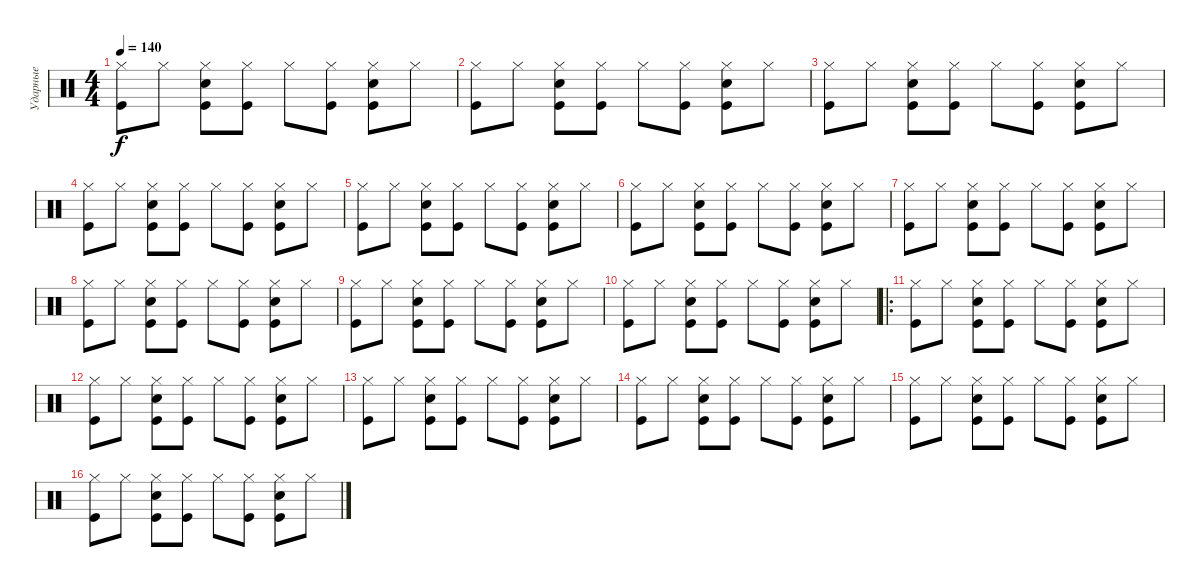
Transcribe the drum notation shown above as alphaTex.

\track ("Ударные" "Ударные") {instrument percussion}
\staff {score}
\articulation defaults
\ts (4 4)
\tempo 140
\clef neutral
\ks c
("Hi-Hat (closed)" "Kick (hit)").8{dy f} "Hi-Hat (closed)".8 ("Hi-Hat (closed)" "Snare (hit) 2" "Kick (hit)").8 ("Hi-Hat (closed)" "Kick (hit)").8 "Hi-Hat (closed)".8 ("Hi-Hat (closed)" "Kick (hit)").8 ("Hi-Hat (closed)" "Snare (hit) 2" "Kick (hit)").8 "Hi-Hat (closed)".8 |
("Hi-Hat (closed)" "Kick (hit)").8 "Hi-Hat (closed)".8 ("Hi-Hat (closed)" "Snare (hit) 2" "Kick (hit)").8 ("Hi-Hat (closed)" "Kick (hit)").8 "Hi-Hat (closed)".8 ("Hi-Hat (closed)" "Kick (hit)").8 ("Hi-Hat (closed)" "Snare (hit) 2" "Kick (hit)").8 "Hi-Hat (closed)".8 |
("Hi-Hat (closed)" "Kick (hit)").8 "Hi-Hat (closed)".8 ("Hi-Hat (closed)" "Snare (hit) 2" "Kick (hit)").8 ("Hi-Hat (closed)" "Kick (hit)").8 "Hi-Hat (closed)".8 ("Hi-Hat (closed)" "Kick (hit)").8 ("Hi-Hat (closed)" "Snare (hit) 2" "Kick (hit)").8 "Hi-Hat (closed)".8 |
("Hi-Hat (closed)" "Kick (hit)").8 "Hi-Hat (closed)".8 ("Hi-Hat (closed)" "Snare (hit) 2" "Kick (hit)").8 ("Hi-Hat (closed)" "Kick (hit)").8 "Hi-Hat (closed)".8 ("Hi-Hat (closed)" "Kick (hit)").8 ("Hi-Hat (closed)" "Snare (hit) 2" "Kick (hit)").8 "Hi-Hat (closed)".8 |
("Hi-Hat (closed)" "Kick (hit)").8 "Hi-Hat (closed)".8 ("Hi-Hat (closed)" "Snare (hit) 2" "Kick (hit)").8 ("Hi-Hat (closed)" "Kick (hit)").8 "Hi-Hat (closed)".8 ("Hi-Hat (closed)" "Kick (hit)").8 ("Hi-Hat (closed)" "Snare (hit) 2" "Kick (hit)").8 "Hi-Hat (closed)".8 |
("Hi-Hat (closed)" "Kick (hit)").8 "Hi-Hat (closed)".8 ("Hi-Hat (closed)" "Snare (hit) 2" "Kick (hit)").8 ("Hi-Hat (closed)" "Kick (hit)").8 "Hi-Hat (closed)".8 ("Hi-Hat (closed)" "Kick (hit)").8 ("Hi-Hat (closed)" "Snare (hit) 2" "Kick (hit)").8 "Hi-Hat (closed)".8 |
("Hi-Hat (closed)" "Kick (hit)").8 "Hi-Hat (closed)".8 ("Hi-Hat (closed)" "Snare (hit) 2" "Kick (hit)").8 ("Hi-Hat (closed)" "Kick (hit)").8 "Hi-Hat (closed)".8 ("Hi-Hat (closed)" "Kick (hit)").8 ("Hi-Hat (closed)" "Snare (hit) 2" "Kick (hit)").8 "Hi-Hat (closed)".8 |
("Hi-Hat (closed)" "Kick (hit)").8 "Hi-Hat (closed)".8 ("Hi-Hat (closed)" "Snare (hit) 2" "Kick (hit)").8 ("Hi-Hat (closed)" "Kick (hit)").8 "Hi-Hat (closed)".8 ("Hi-Hat (closed)" "Kick (hit)").8 ("Hi-Hat (closed)" "Snare (hit) 2" "Kick (hit)").8 "Hi-Hat (closed)".8 |
("Hi-Hat (closed)" "Kick (hit)").8 "Hi-Hat (closed)".8 ("Hi-Hat (closed)" "Snare (hit) 2" "Kick (hit)").8 ("Hi-Hat (closed)" "Kick (hit)").8 "Hi-Hat (closed)".8 ("Hi-Hat (closed)" "Kick (hit)").8 ("Hi-Hat (closed)" "Snare (hit) 2" "Kick (hit)").8 "Hi-Hat (closed)".8 |
("Hi-Hat (closed)" "Kick (hit)").8 "Hi-Hat (closed)".8 ("Hi-Hat (closed)" "Snare (hit) 2" "Kick (hit)").8 ("Hi-Hat (closed)" "Kick (hit)").8 "Hi-Hat (closed)".8 ("Hi-Hat (closed)" "Kick (hit)").8 ("Hi-Hat (closed)" "Snare (hit) 2" "Kick (hit)").8 "Hi-Hat (closed)".8 |
\ro
("Hi-Hat (closed)" "Kick (hit)").8 "Hi-Hat (closed)".8 ("Hi-Hat (closed)" "Snare (hit) 2" "Kick (hit)").8 ("Hi-Hat (closed)" "Kick (hit)").8 "Hi-Hat (closed)".8 ("Hi-Hat (closed)" "Kick (hit)").8 ("Hi-Hat (closed)" "Snare (hit) 2" "Kick (hit)").8 "Hi-Hat (closed)".8 |
("Hi-Hat (closed)" "Kick (hit)").8 "Hi-Hat (closed)".8 ("Hi-Hat (closed)" "Snare (hit) 2" "Kick (hit)").8 ("Hi-Hat (closed)" "Kick (hit)").8 "Hi-Hat (closed)".8 ("Hi-Hat (closed)" "Kick (hit)").8 ("Hi-Hat (closed)" "Snare (hit) 2" "Kick (hit)").8 "Hi-Hat (closed)".8 |
("Hi-Hat (closed)" "Kick (hit)").8 "Hi-Hat (closed)".8 ("Hi-Hat (closed)" "Snare (hit) 2" "Kick (hit)").8 ("Hi-Hat (closed)" "Kick (hit)").8 "Hi-Hat (closed)".8 ("Hi-Hat (closed)" "Kick (hit)").8 ("Hi-Hat (closed)" "Snare (hit) 2" "Kick (hit)").8 "Hi-Hat (closed)".8 |
("Hi-Hat (closed)" "Kick (hit)").8 "Hi-Hat (closed)".8 ("Hi-Hat (closed)" "Snare (hit) 2" "Kick (hit)").8 ("Hi-Hat (closed)" "Kick (hit)").8 "Hi-Hat (closed)".8 ("Hi-Hat (closed)" "Kick (hit)").8 ("Hi-Hat (closed)" "Snare (hit) 2" "Kick (hit)").8 "Hi-Hat (closed)".8 |
("Hi-Hat (closed)" "Kick (hit)").8 "Hi-Hat (closed)".8 ("Hi-Hat (closed)" "Snare (hit) 2" "Kick (hit)").8 ("Hi-Hat (closed)" "Kick (hit)").8 "Hi-Hat (closed)".8 ("Hi-Hat (closed)" "Kick (hit)").8 ("Hi-Hat (closed)" "Snare (hit) 2" "Kick (hit)").8 "Hi-Hat (closed)".8 |
("Hi-Hat (closed)" "Kick (hit)").8 "Hi-Hat (closed)".8 ("Hi-Hat (closed)" "Snare (hit) 2" "Kick (hit)").8 ("Hi-Hat (closed)" "Kick (hit)").8 "Hi-Hat (closed)".8 ("Hi-Hat (closed)" "Kick (hit)").8 ("Hi-Hat (closed)" "Snare (hit) 2" "Kick (hit)").8 "Hi-Hat (closed)".8
